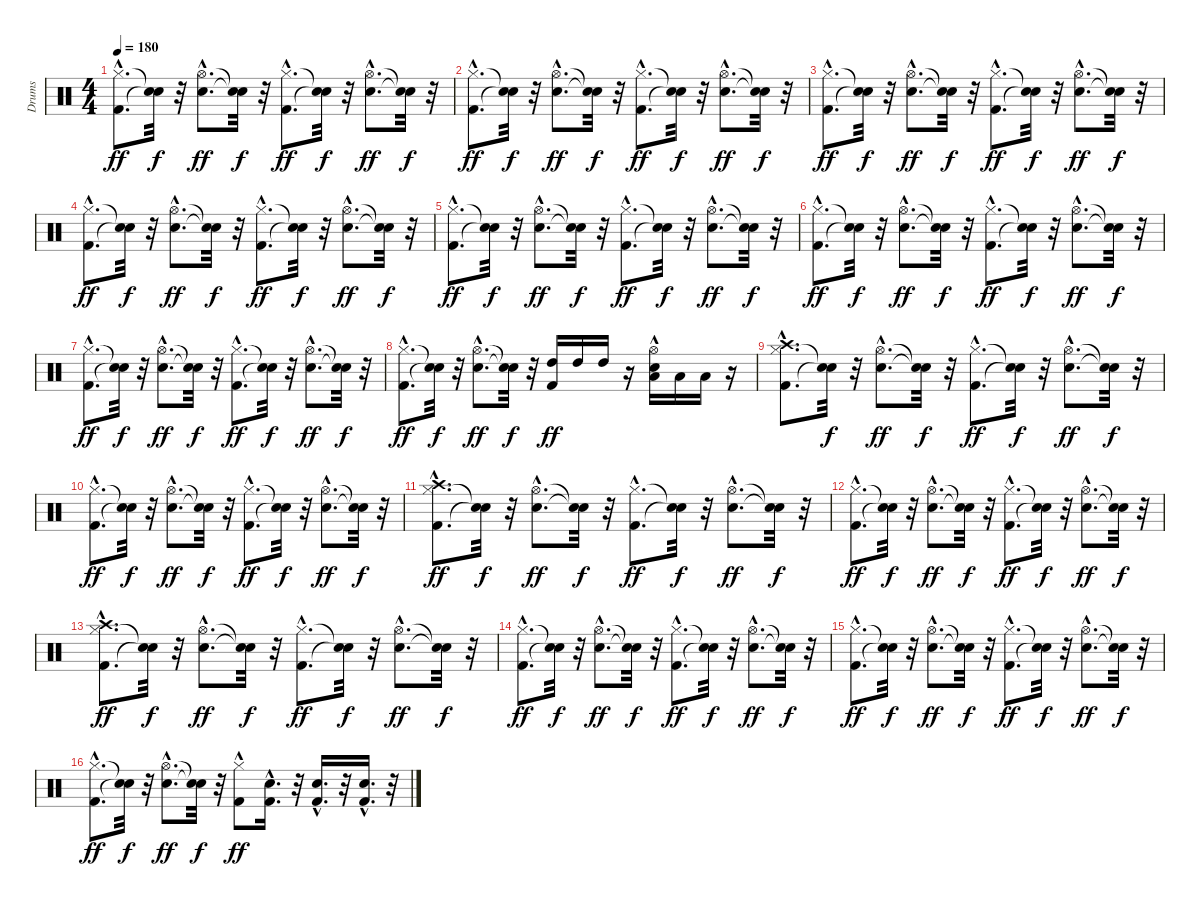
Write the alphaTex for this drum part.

\track ("Drums" "Drums") {instrument percussion}
\staff {score}
\articulation defaults
\ts (4 4)
\tempo 180
\clef neutral
\ks c
("Kick (hit) 2"{hac} "Hi-Hat (closed)"{hac}).8{d dy ff} ("Snare (hit)"{t} "Snare (hit)"{t}).32{dy f} r.32 ("Snare (hit) 2"{hac} "Hi-Hat (open)"{hac}).8{d dy ff} ("Snare (hit)"{t} "Snare (hit)"{t}).32{dy f} r.32 ("Kick (hit) 2"{hac} "Hi-Hat (closed)"{hac}).8{d dy ff} ("Snare (hit)"{t} "Snare (hit)"{t}).32{dy f} r.32 ("Snare (hit) 2"{hac} "Hi-Hat (open)"{hac}).8{d dy ff} ("Snare (hit)"{t} "Snare (hit)"{t}).32{dy f} r.32 |
("Kick (hit) 2"{hac} "Hi-Hat (closed)"{hac}).8{d dy ff} ("Snare (hit)"{t} "Snare (hit)"{t}).32{dy f} r.32 ("Snare (hit) 2"{hac} "Hi-Hat (open)"{hac}).8{d dy ff} ("Snare (hit)"{t} "Snare (hit)"{t}).32{dy f} r.32 ("Kick (hit) 2"{hac} "Hi-Hat (closed)"{hac}).8{d dy ff} ("Snare (hit)"{t} "Snare (hit)"{t}).32{dy f} r.32 ("Snare (hit) 2"{hac} "Hi-Hat (open)"{hac}).8{d dy ff} ("Snare (hit)"{t} "Snare (hit)"{t}).32{dy f} r.32 |
("Kick (hit) 2"{hac} "Hi-Hat (closed)"{hac}).8{d dy ff} ("Snare (hit)"{t} "Snare (hit)"{t}).32{dy f} r.32 ("Snare (hit) 2"{hac} "Hi-Hat (open)"{hac}).8{d dy ff} ("Snare (hit)"{t} "Snare (hit)"{t}).32{dy f} r.32 ("Kick (hit) 2"{hac} "Hi-Hat (closed)"{hac}).8{d dy ff} ("Snare (hit)"{t} "Snare (hit)"{t}).32{dy f} r.32 ("Snare (hit) 2"{hac} "Hi-Hat (open)"{hac}).8{d dy ff} ("Snare (hit)"{t} "Snare (hit)"{t}).32{dy f} r.32 |
("Kick (hit) 2"{hac} "Hi-Hat (closed)"{hac}).8{d dy ff} ("Snare (hit)"{t} "Snare (hit)"{t}).32{dy f} r.32 ("Snare (hit) 2"{hac} "Hi-Hat (open)"{hac}).8{d dy ff} ("Snare (hit)"{t} "Snare (hit)"{t}).32{dy f} r.32 ("Kick (hit) 2"{hac} "Hi-Hat (closed)"{hac}).8{d dy ff} ("Snare (hit)"{t} "Snare (hit)"{t}).32{dy f} r.32 ("Snare (hit) 2"{hac} "Hi-Hat (open)"{hac}).8{d dy ff} ("Snare (hit)"{t} "Snare (hit)"{t}).32{dy f} r.32 |
("Kick (hit) 2"{hac} "Hi-Hat (closed)"{hac}).8{d dy ff} ("Snare (hit)"{t} "Snare (hit)"{t}).32{dy f} r.32 ("Snare (hit) 2"{hac} "Hi-Hat (open)"{hac}).8{d dy ff} ("Snare (hit)"{t} "Snare (hit)"{t}).32{dy f} r.32 ("Kick (hit) 2"{hac} "Hi-Hat (closed)"{hac}).8{d dy ff} ("Snare (hit)"{t} "Snare (hit)"{t}).32{dy f} r.32 ("Snare (hit) 2"{hac} "Hi-Hat (open)"{hac}).8{d dy ff} ("Snare (hit)"{t} "Snare (hit)"{t}).32{dy f} r.32 |
("Kick (hit) 2"{hac} "Hi-Hat (closed)"{hac}).8{d dy ff} ("Snare (hit)"{t} "Snare (hit)"{t}).32{dy f} r.32 ("Snare (hit) 2"{hac} "Hi-Hat (open)"{hac}).8{d dy ff} ("Snare (hit)"{t} "Snare (hit)"{t}).32{dy f} r.32 ("Kick (hit) 2"{hac} "Hi-Hat (closed)"{hac}).8{d dy ff} ("Snare (hit)"{t} "Snare (hit)"{t}).32{dy f} r.32 ("Snare (hit) 2"{hac} "Hi-Hat (open)"{hac}).8{d dy ff} ("Snare (hit)"{t} "Snare (hit)"{t}).32{dy f} r.32 |
("Kick (hit) 2"{hac} "Hi-Hat (closed)"{hac}).8{d dy ff} ("Snare (hit)"{t} "Snare (hit)"{t}).32{dy f} r.32 ("Snare (hit) 2"{hac} "Hi-Hat (open)"{hac}).8{d dy ff} ("Snare (hit)"{t} "Snare (hit)"{t}).32{dy f} r.32 ("Kick (hit) 2"{hac} "Hi-Hat (closed)"{hac}).8{d dy ff} ("Snare (hit)"{t} "Snare (hit)"{t}).32{dy f} r.32 ("Snare (hit) 2"{hac} "Hi-Hat (open)"{hac}).8{d dy ff} ("Snare (hit)"{t} "Snare (hit)"{t}).32{dy f} r.32 |
("Kick (hit) 2"{hac} "Hi-Hat (closed)"{hac}).8{d dy ff} ("Snare (hit)"{t} "Snare (hit)"{t}).32{dy f} r.32 ("Snare (hit) 2"{hac} "Hi-Hat (open)"{hac}).8{d dy ff} ("Snare (hit)"{t} "Snare (hit)"{t}).32{dy f} r.32 ("High Tom (hit)" "Kick (hit) 2").16{dy ff} "High Tom (hit)".16 "High Tom (hit)".16 r.16 ("Snare (hit) 2"{hac} "Hi-Hat (open)"{hac} "Low Tom (hit)").16 "Low Tom (hit)".16 "Low Tom (hit)".16 r.16 |
("Kick (hit) 2"{hac} "Hi-Hat (closed)"{hac} "Crash high (hit)").8{d} ("Snare (hit)"{t} "Snare (hit)"{t}).32{dy f} r.32 ("Snare (hit) 2"{hac} "Hi-Hat (open)"{hac}).8{d dy ff} ("Snare (hit)"{t} "Snare (hit)"{t}).32{dy f} r.32 ("Kick (hit) 2"{hac} "Hi-Hat (closed)"{hac}).8{d dy ff} ("Snare (hit)"{t} "Snare (hit)"{t}).32{dy f} r.32 ("Snare (hit) 2"{hac} "Hi-Hat (open)"{hac}).8{d dy ff} ("Snare (hit)"{t} "Snare (hit)"{t}).32{dy f} r.32 |
("Kick (hit) 2"{hac} "Hi-Hat (closed)"{hac}).8{d dy ff} ("Snare (hit)"{t} "Snare (hit)"{t}).32{dy f} r.32 ("Snare (hit) 2"{hac} "Hi-Hat (open)"{hac}).8{d dy ff} ("Snare (hit)"{t} "Snare (hit)"{t}).32{dy f} r.32 ("Kick (hit) 2"{hac} "Hi-Hat (closed)"{hac}).8{d dy ff} ("Snare (hit)"{t} "Snare (hit)"{t}).32{dy f} r.32 ("Snare (hit) 2"{hac} "Hi-Hat (open)"{hac}).8{d dy ff} ("Snare (hit)"{t} "Snare (hit)"{t}).32{dy f} r.32 |
("Kick (hit) 2"{hac} "Hi-Hat (closed)"{hac} "Crash high (hit)").8{d dy ff} ("Snare (hit)"{t} "Snare (hit)"{t}).32{dy f} r.32 ("Snare (hit) 2"{hac} "Hi-Hat (open)"{hac}).8{d dy ff} ("Snare (hit)"{t} "Snare (hit)"{t}).32{dy f} r.32 ("Kick (hit) 2"{hac} "Hi-Hat (closed)"{hac}).8{d dy ff} ("Snare (hit)"{t} "Snare (hit)"{t}).32{dy f} r.32 ("Snare (hit) 2"{hac} "Hi-Hat (open)"{hac}).8{d dy ff} ("Snare (hit)"{t} "Snare (hit)"{t}).32{dy f} r.32 |
("Kick (hit) 2"{hac} "Hi-Hat (closed)"{hac}).8{d dy ff} ("Snare (hit)"{t} "Snare (hit)"{t}).32{dy f} r.32 ("Snare (hit) 2"{hac} "Hi-Hat (open)"{hac}).8{d dy ff} ("Snare (hit)"{t} "Snare (hit)"{t}).32{dy f} r.32 ("Kick (hit) 2"{hac} "Hi-Hat (closed)"{hac}).8{d dy ff} ("Snare (hit)"{t} "Snare (hit)"{t}).32{dy f} r.32 ("Snare (hit) 2"{hac} "Hi-Hat (open)"{hac}).8{d dy ff} ("Snare (hit)"{t} "Snare (hit)"{t}).32{dy f} r.32 |
("Kick (hit) 2"{hac} "Hi-Hat (closed)"{hac} "Crash high (hit)").8{d dy ff} ("Snare (hit)"{t} "Snare (hit)"{t}).32{dy f} r.32 ("Snare (hit) 2"{hac} "Hi-Hat (open)"{hac}).8{d dy ff} ("Snare (hit)"{t} "Snare (hit)"{t}).32{dy f} r.32 ("Kick (hit) 2"{hac} "Hi-Hat (closed)"{hac}).8{d dy ff} ("Snare (hit)"{t} "Snare (hit)"{t}).32{dy f} r.32 ("Snare (hit) 2"{hac} "Hi-Hat (open)"{hac}).8{d dy ff} ("Snare (hit)"{t} "Snare (hit)"{t}).32{dy f} r.32 |
("Kick (hit) 2"{hac} "Hi-Hat (closed)"{hac}).8{d dy ff} ("Snare (hit)"{t} "Snare (hit)"{t}).32{dy f} r.32 ("Snare (hit) 2"{hac} "Hi-Hat (open)"{hac}).8{d dy ff} ("Snare (hit)"{t} "Snare (hit)"{t}).32{dy f} r.32 ("Kick (hit) 2"{hac} "Hi-Hat (closed)"{hac}).8{d dy ff} ("Snare (hit)"{t} "Snare (hit)"{t}).32{dy f} r.32 ("Snare (hit) 2"{hac} "Hi-Hat (open)"{hac}).8{d dy ff} ("Snare (hit)"{t} "Snare (hit)"{t}).32{dy f} r.32 |
("Kick (hit) 2"{hac} "Hi-Hat (closed)"{hac}).8{d dy ff} ("Snare (hit)"{t} "Snare (hit)"{t}).32{dy f} r.32 ("Snare (hit) 2"{hac} "Hi-Hat (open)"{hac}).8{d dy ff} ("Snare (hit)"{t} "Snare (hit)"{t}).32{dy f} r.32 ("Kick (hit) 2"{hac} "Hi-Hat (closed)"{hac}).8{d dy ff} ("Snare (hit)"{t} "Snare (hit)"{t}).32{dy f} r.32 ("Snare (hit) 2"{hac} "Hi-Hat (open)"{hac}).8{d dy ff} ("Snare (hit)"{t} "Snare (hit)"{t}).32{dy f} r.32 |
("Kick (hit) 2"{hac} "Hi-Hat (closed)"{hac}).8{d dy ff} ("Snare (hit)"{t} "Snare (hit)"{t}).32{dy f} r.32 ("Snare (hit) 2"{hac} "Hi-Hat (open)"{hac}).8{d dy ff} ("Snare (hit)"{t} "Snare (hit)"{t}).32{dy f} r.32 ("Kick (hit) 2" "Hi-Hat (closed)"{hac}).8{dy ff} ("Kick (hit) 2"{hac} "Snare (hit) 2"{hac}).16{d} r.32 ("Kick (hit) 2"{hac} "Snare (hit) 2"{hac}).16{d} r.32 ("Kick (hit) 2"{hac} "Snare (hit) 2"{hac}).16{d} r.32
